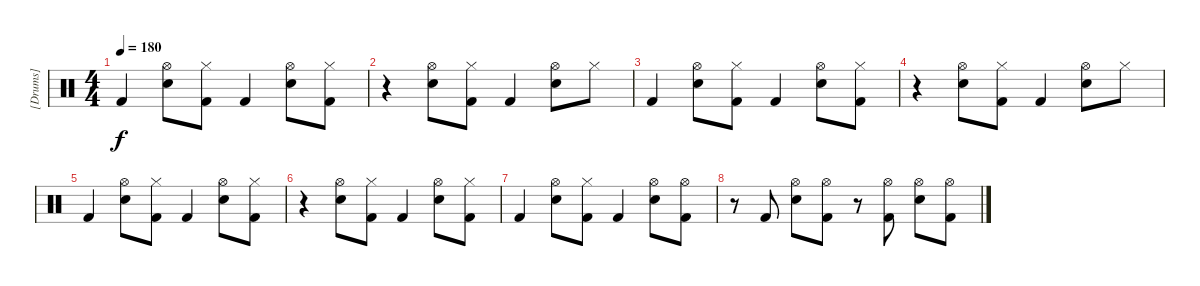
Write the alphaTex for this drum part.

\track ("[Drums]" "[Drums]") {instrument percussion}
\staff {score}
\articulation defaults
\ts (4 4)
\tempo 180
\clef neutral
\ks c "Kick (hit) 2".4{dy f}
("Hi-Hat (open)" "Electric Snare (hit)").8 ("Hi-Hat (closed)" "Kick (hit) 2").8 "Kick (hit) 2".4 ("Hi-Hat (open)" "Electric Snare (hit)").8 ("Hi-Hat (closed)" "Kick (hit) 2").8 |
r.4 ("Hi-Hat (open)" "Electric Snare (hit)").8 ("Hi-Hat (closed)" "Kick (hit) 2").8 "Kick (hit) 2".4 ("Hi-Hat (open)" "Electric Snare (hit)").8 "Hi-Hat (closed)".8 |
"Kick (hit) 2".4 ("Hi-Hat (open)" "Electric Snare (hit)").8 ("Hi-Hat (closed)" "Kick (hit) 2").8 "Kick (hit) 2".4 ("Hi-Hat (open)" "Electric Snare (hit)").8 ("Hi-Hat (closed)" "Kick (hit) 2").8 |
r.4 ("Hi-Hat (open)" "Electric Snare (hit)").8 ("Hi-Hat (closed)" "Kick (hit) 2").8 "Kick (hit) 2".4 ("Hi-Hat (open)" "Electric Snare (hit)").8 "Hi-Hat (closed)".8 |
"Kick (hit) 2".4 ("Hi-Hat (open)" "Electric Snare (hit)").8 ("Hi-Hat (closed)" "Kick (hit) 2").8 "Kick (hit) 2".4 ("Hi-Hat (open)" "Electric Snare (hit)").8 ("Hi-Hat (closed)" "Kick (hit) 2").8 |
r.4 ("Hi-Hat (open)" "Electric Snare (hit)").8 ("Hi-Hat (closed)" "Kick (hit) 2").8 "Kick (hit) 2".4 ("Hi-Hat (open)" "Electric Snare (hit)").8 ("Hi-Hat (closed)" "Kick (hit) 2").8 |
"Kick (hit) 2".4 ("Hi-Hat (open)" "Electric Snare (hit)").8 ("Hi-Hat (closed)" "Kick (hit) 2").8 "Kick (hit) 2".4 ("Hi-Hat (open)" "Electric Snare (hit)").8 ("Hi-Hat (open)" "Kick (hit) 2").8 |
r.8 "Kick (hit) 2".8 ("Hi-Hat (open)" "Electric Snare (hit)").8 ("Hi-Hat (open)" "Kick (hit) 2").8 r.8 ("Hi-Hat (open)" "Kick (hit) 2").8 ("Hi-Hat (open)" "Electric Snare (hit)").8 ("Hi-Hat (open)" "Kick (hit) 2").8
